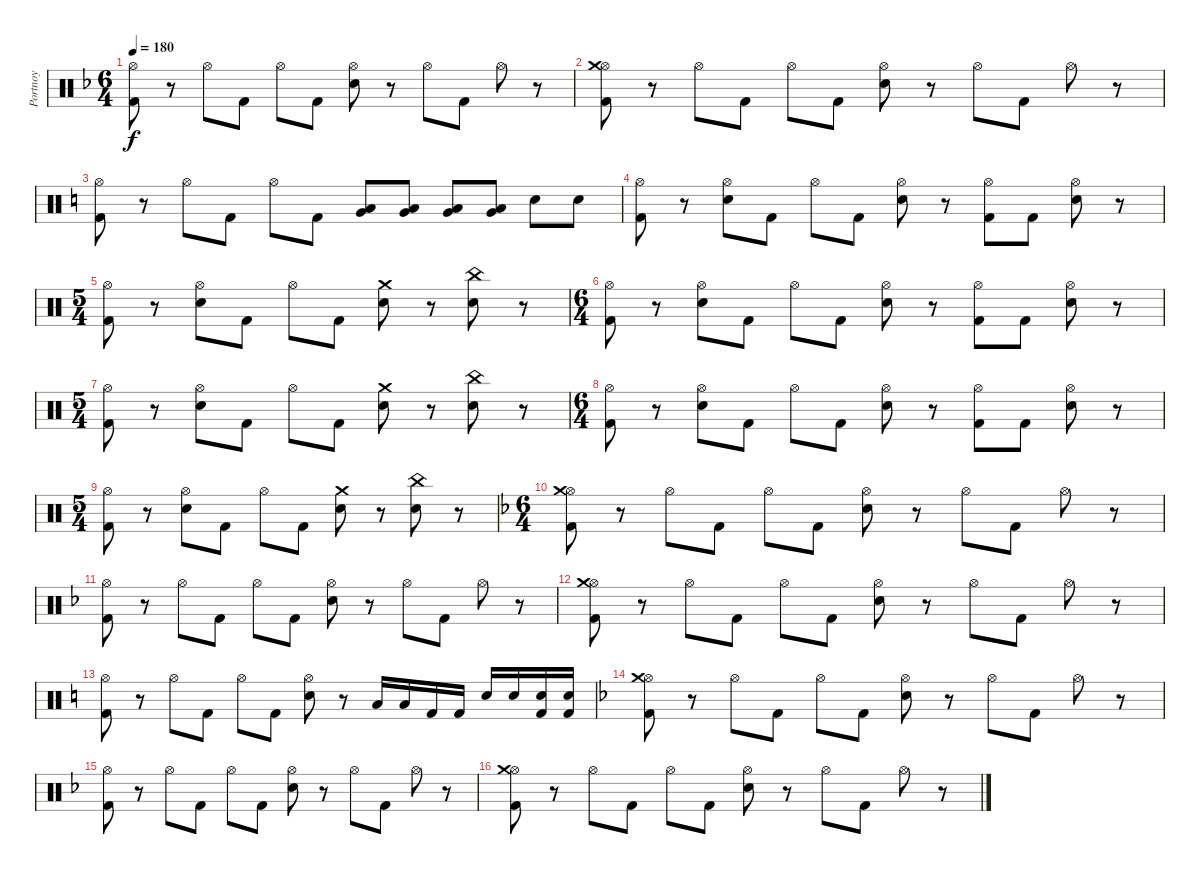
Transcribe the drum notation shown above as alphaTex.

\track ("Portnoy" "Portnoy") {instrument percussion}
\staff {score}
\articulation defaults
\ts (6 4)
\tempo 180
\clef neutral
\ks f
("Hi-Hat (open)" "Kick (hit) 2").8{dy f} r.8 "Hi-Hat (open)".8 "Kick (hit) 2".8 "Hi-Hat (open)".8 "Kick (hit) 2".8 ("Hi-Hat (open)" "Electric Snare (hit)").8 r.8 "Hi-Hat (open)".8 "Kick (hit) 2".8 "Hi-Hat (open)".8 r.8 |
("Hi-Hat (open)" "Crash medium (hit)" "Kick (hit) 2").8 r.8 "Hi-Hat (open)".8 "Kick (hit) 2".8 "Hi-Hat (open)".8 "Kick (hit) 2".8 ("Hi-Hat (open)" "Electric Snare (hit)").8 r.8 "Hi-Hat (open)".8 "Kick (hit) 2".8 "Hi-Hat (open)".8 r.8 |
\ks c
("Hi-Hat (open)" "Kick (hit) 2").8 r.8 "Hi-Hat (open)".8 "Kick (hit) 2".8 "Hi-Hat (open)".8 "Kick (hit) 2".8 ("Low Tom (hit)" "Very Low Tom (hit)").8 ("Low Tom (hit)" "Very Low Tom (hit)").8 ("Low Tom (hit)" "Very Low Tom (hit)").8 ("Low Tom (hit)" "Very Low Tom (hit)").8 "Electric Snare (hit)".8 "Electric Snare (hit)".8 |
("Hi-Hat (open)" "Kick (hit) 2").8 r.8 ("Hi-Hat (open)" "Electric Snare (hit)").8 "Kick (hit) 2".8 "Hi-Hat (open)".8 "Kick (hit) 2".8 ("Hi-Hat (open)" "Electric Snare (hit)").8 r.8 ("Hi-Hat (open)" "Kick (hit) 2").8 "Kick (hit) 2".8 ("Hi-Hat (open)" "Electric Snare (hit)").8 r.8 |
\ts (5 4)
("Hi-Hat (open)" "Kick (hit) 2").8 r.8 ("Hi-Hat (open)" "Electric Snare (hit)").8 "Kick (hit) 2".8 "Hi-Hat (open)".8 "Kick (hit) 2".8 ("Crash medium (hit)" "Electric Snare (hit)").8 r.8 ("China (hit)" "Electric Snare (hit)").8 r.8 |
\ts (6 4)
("Hi-Hat (open)" "Kick (hit) 2").8 r.8 ("Hi-Hat (open)" "Electric Snare (hit)").8 "Kick (hit) 2".8 "Hi-Hat (open)".8 "Kick (hit) 2".8 ("Hi-Hat (open)" "Electric Snare (hit)").8 r.8 ("Hi-Hat (open)" "Kick (hit) 2").8 "Kick (hit) 2".8 ("Hi-Hat (open)" "Electric Snare (hit)").8 r.8 |
\ts (5 4)
("Hi-Hat (open)" "Kick (hit) 2").8 r.8 ("Hi-Hat (open)" "Electric Snare (hit)").8 "Kick (hit) 2".8 "Hi-Hat (open)".8 "Kick (hit) 2".8 ("Crash medium (hit)" "Electric Snare (hit)").8 r.8 ("China (hit)" "Electric Snare (hit)").8 r.8 |
\ts (6 4)
("Hi-Hat (open)" "Kick (hit) 2").8 r.8 ("Hi-Hat (open)" "Electric Snare (hit)").8 "Kick (hit) 2".8 "Hi-Hat (open)".8 "Kick (hit) 2".8 ("Hi-Hat (open)" "Electric Snare (hit)").8 r.8 ("Hi-Hat (open)" "Kick (hit) 2").8 "Kick (hit) 2".8 ("Hi-Hat (open)" "Electric Snare (hit)").8 r.8 |
\ts (5 4)
("Hi-Hat (open)" "Kick (hit) 2").8 r.8 ("Hi-Hat (open)" "Electric Snare (hit)").8 "Kick (hit) 2".8 "Hi-Hat (open)".8 "Kick (hit) 2".8 ("Crash medium (hit)" "Electric Snare (hit)").8 r.8 ("China (hit)" "Electric Snare (hit)").8 r.8 |
\ts (6 4)
\ks f
("Hi-Hat (open)" "Crash medium (hit)" "Kick (hit) 2").8 r.8 "Hi-Hat (open)".8 "Kick (hit) 2".8 "Hi-Hat (open)".8 "Kick (hit) 2".8 ("Hi-Hat (open)" "Electric Snare (hit)").8 r.8 "Hi-Hat (open)".8 "Kick (hit) 2".8 "Hi-Hat (open)".8 r.8 |
("Hi-Hat (open)" "Kick (hit) 2").8 r.8 "Hi-Hat (open)".8 "Kick (hit) 2".8 "Hi-Hat (open)".8 "Kick (hit) 2".8 ("Hi-Hat (open)" "Electric Snare (hit)").8 r.8 "Hi-Hat (open)".8 "Kick (hit) 2".8 "Hi-Hat (open)".8 r.8 |
("Hi-Hat (open)" "Crash medium (hit)" "Kick (hit) 2").8 r.8 "Hi-Hat (open)".8 "Kick (hit) 2".8 "Hi-Hat (open)".8 "Kick (hit) 2".8 ("Hi-Hat (open)" "Electric Snare (hit)").8 r.8 "Hi-Hat (open)".8 "Kick (hit) 2".8 "Hi-Hat (open)".8 r.8 |
\ks c
("Hi-Hat (open)" "Kick (hit) 2").8 r.8 "Hi-Hat (open)".8 "Kick (hit) 2".8 "Hi-Hat (open)".8 "Kick (hit) 2".8 ("Hi-Hat (open)" "Electric Snare (hit)").8 r.8 "Low Tom (hit)".16 "Low Tom (hit)".16 "Kick (hit) 2".16 "Kick (hit) 2".16 "Electric Snare (hit)".16 "Electric Snare (hit)".16 ("Electric Snare (hit)" "Kick (hit) 2").16 ("Electric Snare (hit)" "Kick (hit) 2").16 |
\ks f
("Hi-Hat (open)" "Crash medium (hit)" "Kick (hit) 2").8 r.8 "Hi-Hat (open)".8 "Kick (hit) 2".8 "Hi-Hat (open)".8 "Kick (hit) 2".8 ("Hi-Hat (open)" "Electric Snare (hit)").8 r.8 "Hi-Hat (open)".8 "Kick (hit) 2".8 "Hi-Hat (open)".8 r.8 |
("Hi-Hat (open)" "Kick (hit) 2").8 r.8 "Hi-Hat (open)".8 "Kick (hit) 2".8 "Hi-Hat (open)".8 "Kick (hit) 2".8 ("Hi-Hat (open)" "Electric Snare (hit)").8 r.8 "Hi-Hat (open)".8 "Kick (hit) 2".8 "Hi-Hat (open)".8 r.8 |
("Hi-Hat (open)" "Crash medium (hit)" "Kick (hit) 2").8 r.8 "Hi-Hat (open)".8 "Kick (hit) 2".8 "Hi-Hat (open)".8 "Kick (hit) 2".8 ("Hi-Hat (open)" "Electric Snare (hit)").8 r.8 "Hi-Hat (open)".8 "Kick (hit) 2".8 "Hi-Hat (open)".8 r.8
